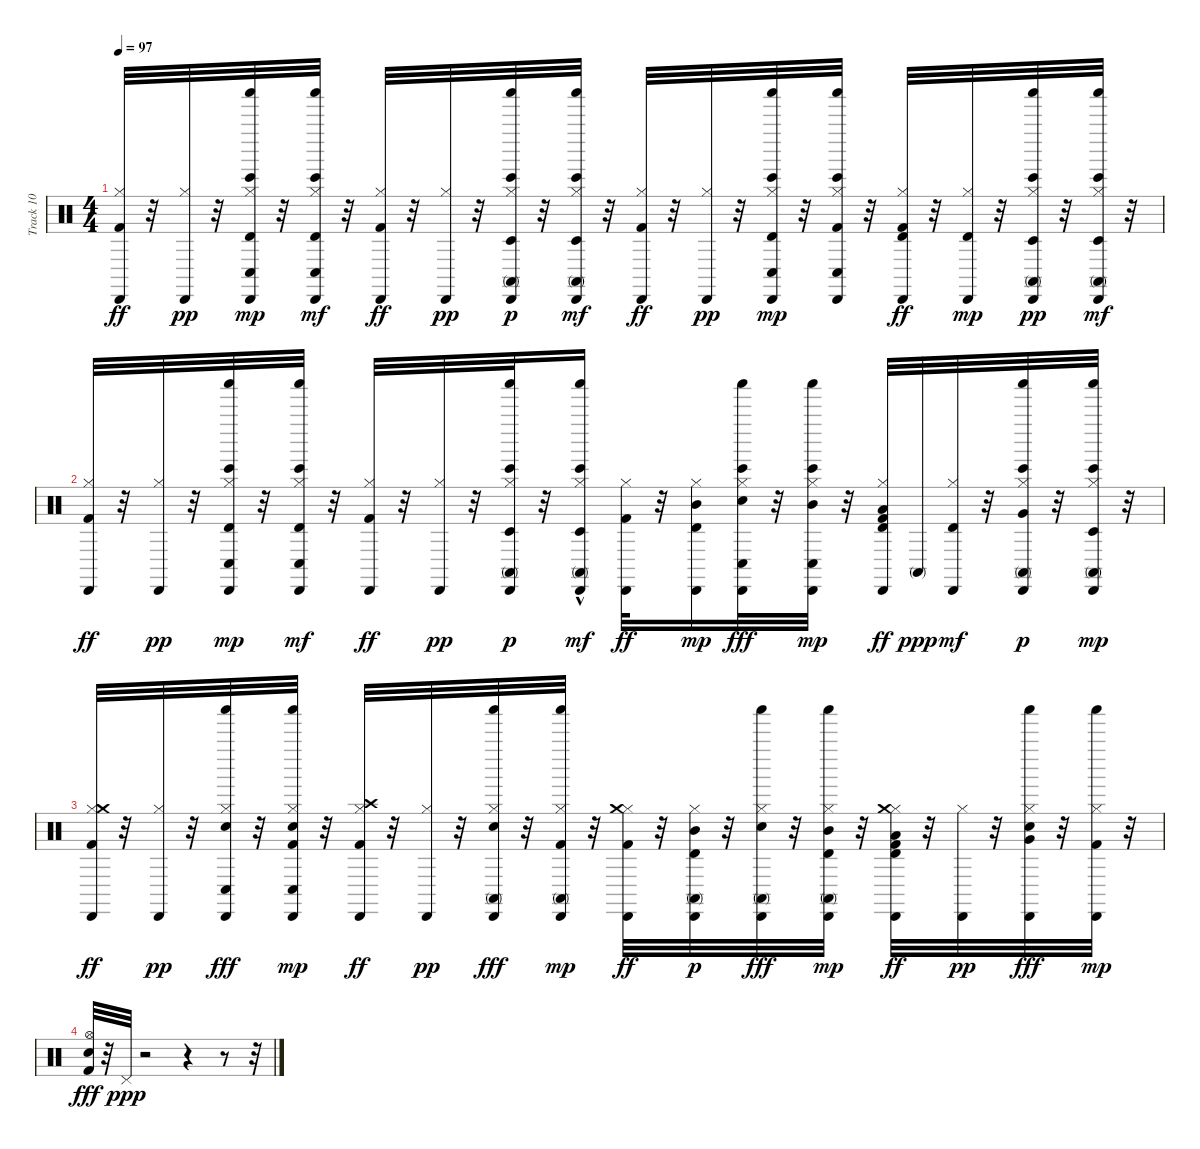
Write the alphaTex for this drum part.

\track ("Track 10" "Track 10") {instrument percussion}
\staff {score}
\articulation defaults
\ts (4 4)
\tempo 97
\clef neutral
\ks c
("Hi-Hat (closed)" "Cabasa (hit)" "Kick (hit) 2").32{dy ff} r.32 ("Hi-Hat (closed)" "Cabasa (hit)").32{dy pp} r.32 ("Hi-Hat (closed)" "Shaker (hit)" "Conga low (hit)" "Bongo High (hit)" "Cabasa (hit)" "Timbale high (hit)").32{dy mp} r.32 ("Hi-Hat (closed)" "Shaker (hit)" "Conga low (hit)" "Bongo High (hit)" "Cabasa (hit)" "Timbale high (hit)").32{dy mf} r.32 ("Hi-Hat (closed)" "Cabasa (hit)" "Kick (hit) 2").32{dy ff} r.32 ("Hi-Hat (closed)" "Cabasa (hit)").32{dy pp} r.32 ("Hi-Hat (closed)" "Shaker (hit)" "Conga high (mute)" "Bongo High (hit)" "Cabasa (hit)" "Timbale low (hit)").32{dy p} r.32 ("Hi-Hat (closed)" "Shaker (hit)" "Conga high (mute)" "Bongo High (hit)" "Cabasa (hit)" "Timbale low (hit)").32{dy mf} r.32 ("Hi-Hat (closed)" "Cabasa (hit)" "Kick (hit) 2").32{dy ff} r.32 ("Hi-Hat (closed)" "Cabasa (hit)").32{dy pp} r.32 ("Hi-Hat (closed)" "Shaker (hit)" "Conga low (hit)" "Bongo High (hit)" "Cabasa (hit)" "Timbale high (hit)").32{dy mp} r.32 ("Hi-Hat (closed)" "Shaker (hit)" "Conga low (hit)" "Bongo High (hit)" "Cabasa (hit)" "Kick (hit) 2").32 r.32 ("Hi-Hat (closed)" "Cabasa (hit)" "Timbale high (hit)" "Kick (hit) 2").32{dy ff} r.32 ("Hi-Hat (closed)" "Cabasa (hit)" "Timbale high (hit)").32{dy mp} r.32 ("Hi-Hat (closed)" "Shaker (hit)" "Conga high (mute)" "Bongo High (hit)" "Cabasa (hit)" "Timbale low (hit)").32{dy pp} r.32 ("Hi-Hat (closed)" "Shaker (hit)" "Conga high (mute)" "Bongo High (hit)" "Cabasa (hit)" "Timbale low (hit)").32{dy mf} r.32 |
("Hi-Hat (closed)" "Cabasa (hit)" "Kick (hit) 2").32{dy ff} r.32 ("Hi-Hat (closed)" "Cabasa (hit)").32{dy pp} r.32 ("Hi-Hat (closed)" "Shaker (hit)" "Conga low (hit)" "Bongo High (hit)" "Cabasa (hit)" "Timbale high (hit)").32{dy mp} r.32 ("Hi-Hat (closed)" "Shaker (hit)" "Conga low (hit)" "Bongo High (hit)" "Cabasa (hit)" "Timbale high (hit)").32{dy mf} r.32 ("Hi-Hat (closed)" "Cabasa (hit)" "Kick (hit) 2").32{dy ff} r.32 ("Hi-Hat (closed)" "Cabasa (hit)").32{dy pp} r.32 ("Hi-Hat (closed)" "Shaker (hit)" "Conga high (mute)" "Bongo High (hit)" "Cabasa (hit)" "Timbale low (hit)").32{dy p} r.32 ("Hi-Hat (closed)" "Shaker (hit)" "Conga high (mute)" "Bongo High (hit)" "Cabasa (hit)" "Timbale low (hit)"{hac}).16{dy mf} ("Hi-Hat (closed)" "Cabasa (hit)" "Kick (hit) 2").32{dy ff} r.32 ("Hi-Hat (closed)" "Cabasa (hit)" "Mid Tom (hit)" "Timbale high (hit)").16{dy mp} ("Hi-Hat (closed)" "Shaker (hit)" "Conga low (hit)" "Bongo High (hit)" "Cabasa (hit)" "Snare (hit) 2").32{dy fff} r.32 ("Hi-Hat (closed)" "Shaker (hit)" "Conga low (hit)" "Bongo High (hit)" "Cabasa (hit)" "Mid Tom (hit)").32{dy mp} r.32 ("Hi-Hat (closed)" "Cabasa (hit)" "Low Tom (hit)" "Timbale high (hit)" "Kick (hit) 2").32{dy ff} "Conga high (mute)".32{dy ppp} ("Hi-Hat (closed)" "Cabasa (hit)" "Timbale high (hit)").32{dy mf} r.32 ("Hi-Hat (closed)" "Shaker (hit)" "Conga high (mute)" "Bongo High (hit)" "Cabasa (hit)" "Very Low Tom (hit)").32{dy p} r.32 ("Hi-Hat (closed)" "Shaker (hit)" "Conga high (mute)" "Bongo High (hit)" "Cabasa (hit)" "Timbale low (hit)").32{dy mp} r.32 |
("Hi-Hat (closed)" "Cabasa (hit)" "Crash medium (hit)" "Kick (hit) 2").32{dy ff} r.32 ("Hi-Hat (closed)" "Cabasa (hit)").32{dy pp} r.32 ("Hi-Hat (closed)" "Shaker (hit)" "Conga low (hit)" "Cabasa (hit)" "Snare (hit) 2").32{dy fff} r.32 ("Hi-Hat (closed)" "Shaker (hit)" "Conga low (hit)" "Cabasa (hit)" "Kick (hit) 2" "Snare (hit) 2").32{dy mp} r.32 ("Hi-Hat (closed)" "Cabasa (hit)" "Crash high (hit)" "Kick (hit) 2").32{dy ff} r.32 ("Hi-Hat (closed)" "Cabasa (hit)").32{dy pp} r.32 ("Hi-Hat (closed)" "Shaker (hit)" "Conga high (mute)" "Cabasa (hit)" "Snare (hit) 2").32{dy fff} r.32 ("Hi-Hat (closed)" "Shaker (hit)" "Conga high (mute)" "Cabasa (hit)" "Kick (hit) 2").32{dy mp} r.32 ("Hi-Hat (closed)" "Cabasa (hit)" "Crash medium (hit)" "Kick (hit) 2").32{dy ff} r.32 ("Hi-Hat (closed)" "Conga high (mute)" "Cabasa (hit)" "Mid Tom (hit)" "Timbale high (hit)").32{dy p} r.32 ("Hi-Hat (closed)" "Shaker (hit)" "Conga high (mute)" "Cabasa (hit)" "Snare (hit) 2").32{dy fff} r.32 ("Hi-Hat (closed)" "Shaker (hit)" "Conga high (mute)" "Cabasa (hit)" "Mid Tom (hit)" "Timbale high (hit)").32{dy mp} r.32 ("Hi-Hat (closed)" "Cabasa (hit)" "Crash medium (hit)" "Low Tom (hit)" "Timbale high (hit)" "Kick (hit) 2").32{dy ff} r.32 ("Hi-Hat (closed)" "Cabasa (hit)").32{dy pp} r.32 ("Hi-Hat (closed)" "Shaker (hit)" "Cabasa (hit)" "Very Low Tom (hit)" "Snare (hit) 2").32{dy fff} r.32 ("Hi-Hat (closed)" "Shaker (hit)" "Cabasa (hit)" "Kick (hit) 2").32{dy mp} r.32 |
("Hi-Hat (open)" "Kick (hit) 2" "Electric Snare (hit)").32{dy fff} r.32 "Pedal Hi-Hat (hit)".32{dy ppp} r.2 r.4 r.8 r.32
